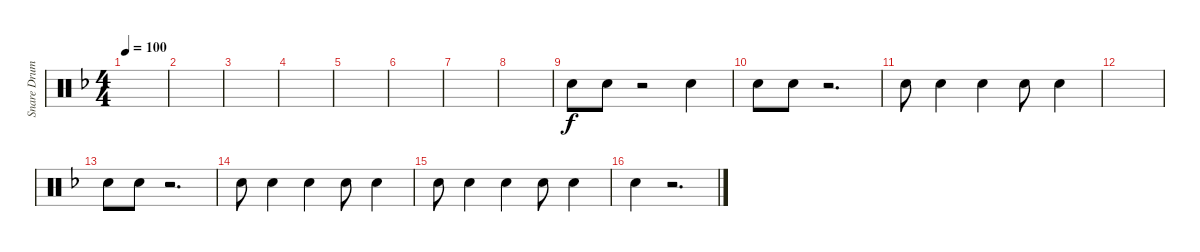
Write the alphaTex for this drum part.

\track ("Snare Drum" "Snare Drum") {instrument percussion}
\staff {score}
\articulation defaults
\ts (4 4)
\tempo 100
\clef neutral
\ks dminor
|
|
|
|
|
|
|
|
"Electric Snare (hit)".8 "Electric Snare (hit)".8 r.2 "Electric Snare (hit)".4 |
"Electric Snare (hit)".8 "Electric Snare (hit)".8 r.2{d} |
"Electric Snare (hit)".8 "Electric Snare (hit)".4 "Electric Snare (hit)".4 "Electric Snare (hit)".8 "Electric Snare (hit)".4 |
|
"Electric Snare (hit)".8 "Electric Snare (hit)".8 r.2{d} |
"Electric Snare (hit)".8 "Electric Snare (hit)".4 "Electric Snare (hit)".4 "Electric Snare (hit)".8 "Electric Snare (hit)".4 |
"Electric Snare (hit)".8 "Electric Snare (hit)".4 "Electric Snare (hit)".4 "Electric Snare (hit)".8 "Electric Snare (hit)".4 |
"Electric Snare (hit)".4 r.2{d}
